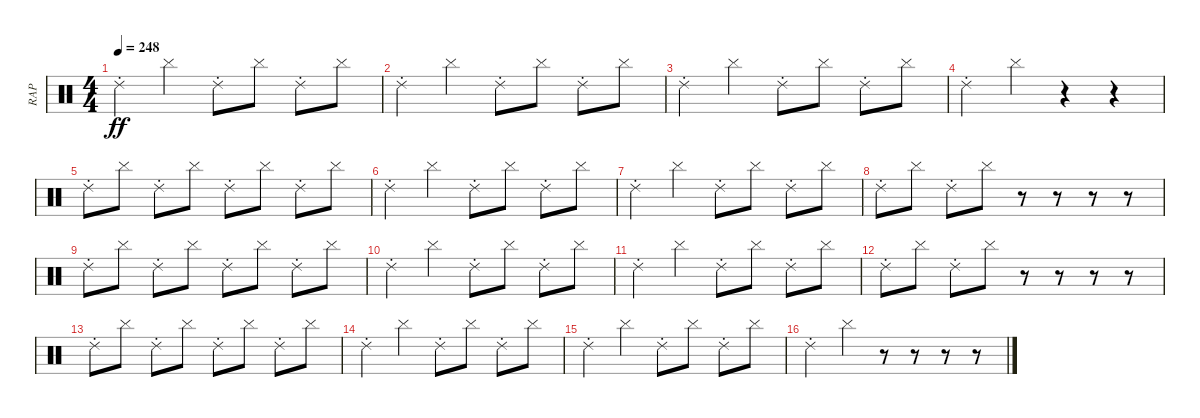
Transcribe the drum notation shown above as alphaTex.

\track ("RAP" "RAP") {instrument percussion}
\staff {score}
\articulation defaults
\ts (4 4)
\tempo 248
\clef neutral
\ks c "Ride (choke) 2".4{dy ff} "Cymbal (hit)".4 "Ride (choke) 2".8 "Cymbal (hit)".8 "Ride (choke) 2".8 "Cymbal (hit)".8
|
"Ride (choke) 2".4 "Cymbal (hit)".4 "Ride (choke) 2".8 "Cymbal (hit)".8 "Ride (choke) 2".8 "Cymbal (hit)".8 |
"Ride (choke) 2".4 "Cymbal (hit)".4 "Ride (choke) 2".8 "Cymbal (hit)".8 "Ride (choke) 2".8 "Cymbal (hit)".8 |
"Ride (choke) 2".4 "Cymbal (hit)".4 r.4 r.4 |
"Ride (choke) 2".8 "Cymbal (hit)".8 "Ride (choke) 2".8 "Cymbal (hit)".8 "Ride (choke) 2".8 "Cymbal (hit)".8 "Ride (choke) 2".8 "Cymbal (hit)".8 |
"Ride (choke) 2".4 "Cymbal (hit)".4 "Ride (choke) 2".8 "Cymbal (hit)".8 "Ride (choke) 2".8 "Cymbal (hit)".8 |
"Ride (choke) 2".4 "Cymbal (hit)".4 "Ride (choke) 2".8 "Cymbal (hit)".8 "Ride (choke) 2".8 "Cymbal (hit)".8 |
"Ride (choke) 2".8 "Cymbal (hit)".8 "Ride (choke) 2".8 "Cymbal (hit)".8 r.8 r.8 r.8 r.8 |
"Ride (choke) 2".8 "Cymbal (hit)".8 "Ride (choke) 2".8 "Cymbal (hit)".8 "Ride (choke) 2".8 "Cymbal (hit)".8 "Ride (choke) 2".8 "Cymbal (hit)".8 |
"Ride (choke) 2".4 "Cymbal (hit)".4 "Ride (choke) 2".8 "Cymbal (hit)".8 "Ride (choke) 2".8 "Cymbal (hit)".8 |
"Ride (choke) 2".4 "Cymbal (hit)".4 "Ride (choke) 2".8 "Cymbal (hit)".8 "Ride (choke) 2".8 "Cymbal (hit)".8 |
"Ride (choke) 2".8 "Cymbal (hit)".8 "Ride (choke) 2".8 "Cymbal (hit)".8 r.8 r.8 r.8 r.8 |
"Ride (choke) 2".8 "Cymbal (hit)".8 "Ride (choke) 2".8 "Cymbal (hit)".8 "Ride (choke) 2".8 "Cymbal (hit)".8 "Ride (choke) 2".8 "Cymbal (hit)".8 |
"Ride (choke) 2".4 "Cymbal (hit)".4 "Ride (choke) 2".8 "Cymbal (hit)".8 "Ride (choke) 2".8 "Cymbal (hit)".8 |
"Ride (choke) 2".4 "Cymbal (hit)".4 "Ride (choke) 2".8 "Cymbal (hit)".8 "Ride (choke) 2".8 "Cymbal (hit)".8 |
"Ride (choke) 2".4 "Cymbal (hit)".4 r.8 r.8 r.8 r.8
